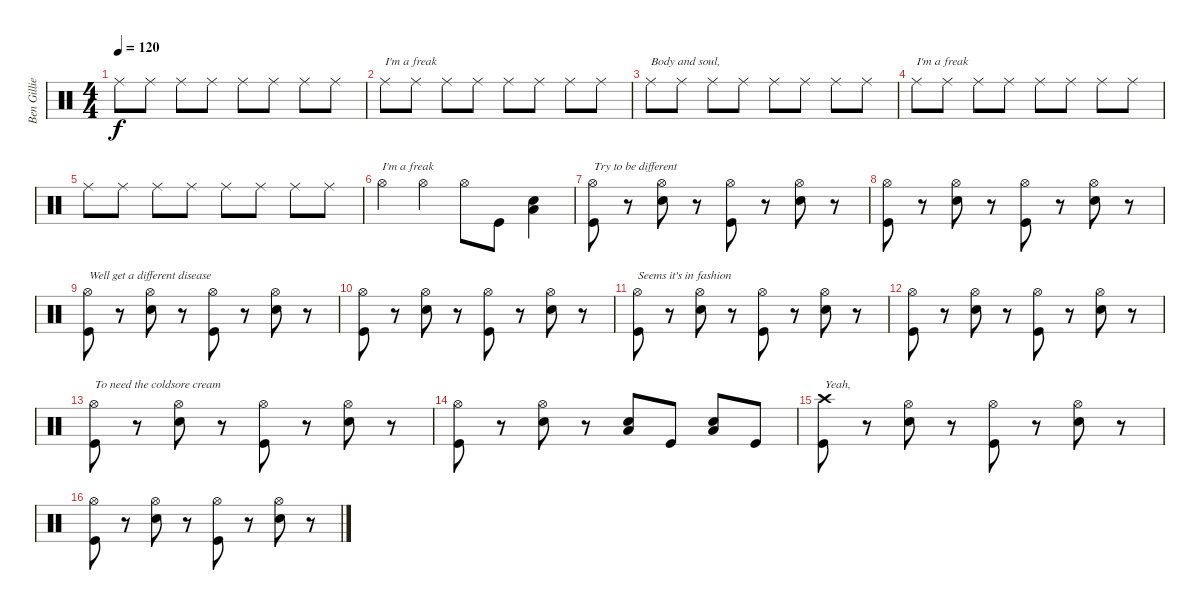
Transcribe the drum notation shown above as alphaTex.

\track ("Ben Gillies" "Ben Gillie") {instrument percussion}
\staff {score}
\articulation defaults
\ts (4 4)
\tempo 120
\clef neutral
\ks c "Ride (middle)".8{dy f} "Ride (middle)".8 "Ride (middle)".8 "Ride (middle)".8 "Ride (middle)".8 "Ride (middle)".8 "Ride (middle)".8 "Ride (middle)".8
|
"Ride (middle)".8{txt "I'm a freak"} "Ride (middle)".8 "Ride (middle)".8 "Ride (middle)".8 "Ride (middle)".8 "Ride (middle)".8 "Ride (middle)".8 "Ride (middle)".8 |
"Ride (middle)".8{txt "Body and soul,"} "Ride (middle)".8 "Ride (middle)".8 "Ride (middle)".8 "Ride (middle)".8 "Ride (middle)".8 "Ride (middle)".8 "Ride (middle)".8 |
"Ride (middle)".8{txt "I'm a freak"} "Ride (middle)".8 "Ride (middle)".8 "Ride (middle)".8 "Ride (middle)".8 "Ride (middle)".8 "Ride (middle)".8 "Ride (middle)".8 |
"Ride (middle)".8 "Ride (middle)".8 "Ride (middle)".8 "Ride (middle)".8 "Ride (middle)".8 "Ride (middle)".8 "Ride (middle)".8 "Ride (middle)".8 |
"Hi-Hat (open)".4{txt "I'm a freak"} "Hi-Hat (open)".4 "Hi-Hat (open)".8 "Kick (hit)".8 ("Low Floor Tom (hit)" "Electric Snare (hit)").4 |
("Hi-Hat (open)" "Kick (hit)").8{txt "Try to be different"} r.8 ("Electric Snare (hit)" "Hi-Hat (open)").8 r.8 ("Hi-Hat (open)" "Kick (hit)").8 r.8 ("Electric Snare (hit)" "Hi-Hat (open)").8 r.8 |
("Hi-Hat (open)" "Kick (hit)").8 r.8 ("Electric Snare (hit)" "Hi-Hat (open)").8 r.8 ("Hi-Hat (open)" "Kick (hit)").8 r.8 ("Electric Snare (hit)" "Hi-Hat (open)").8 r.8 |
("Hi-Hat (open)" "Kick (hit)").8{txt "Well get a different disease"} r.8 ("Electric Snare (hit)" "Hi-Hat (open)").8 r.8 ("Hi-Hat (open)" "Kick (hit)").8 r.8 ("Electric Snare (hit)" "Hi-Hat (open)").8 r.8 |
("Hi-Hat (open)" "Kick (hit)").8 r.8 ("Electric Snare (hit)" "Hi-Hat (open)").8 r.8 ("Hi-Hat (open)" "Kick (hit)").8 r.8 ("Electric Snare (hit)" "Hi-Hat (open)").8 r.8 |
("Hi-Hat (open)" "Kick (hit)").8{txt "Seems it's in fashion"} r.8 ("Electric Snare (hit)" "Hi-Hat (open)").8 r.8 ("Hi-Hat (open)" "Kick (hit)").8 r.8 ("Electric Snare (hit)" "Hi-Hat (open)").8 r.8 |
("Hi-Hat (open)" "Kick (hit)").8 r.8 ("Electric Snare (hit)" "Hi-Hat (open)").8 r.8 ("Hi-Hat (open)" "Kick (hit)").8 r.8 ("Electric Snare (hit)" "Hi-Hat (open)").8 r.8 |
("Hi-Hat (open)" "Kick (hit)").8{txt "To need the coldsore cream"} r.8 ("Electric Snare (hit)" "Hi-Hat (open)").8 r.8 ("Hi-Hat (open)" "Kick (hit)").8 r.8 ("Electric Snare (hit)" "Hi-Hat (open)").8 r.8 |
("Hi-Hat (open)" "Kick (hit)").8 r.8 ("Electric Snare (hit)" "Hi-Hat (open)").8 r.8 ("Low Tom (hit)" "Electric Snare (hit)").8 "Kick (hit)".8 ("Low Floor Tom (hit)" "Electric Snare (hit)").8 "Kick (hit)".8 |
("Crash high (hit)" "Kick (hit)").8{txt "Yeah,"} r.8 ("Electric Snare (hit)" "Hi-Hat (open)").8 r.8 ("Hi-Hat (open)" "Kick (hit)").8 r.8 ("Electric Snare (hit)" "Hi-Hat (open)").8 r.8 |
("Hi-Hat (open)" "Kick (hit)").8 r.8 ("Electric Snare (hit)" "Hi-Hat (open)").8 r.8 ("Hi-Hat (open)" "Kick (hit)").8 r.8 ("Electric Snare (hit)" "Hi-Hat (open)").8 r.8
